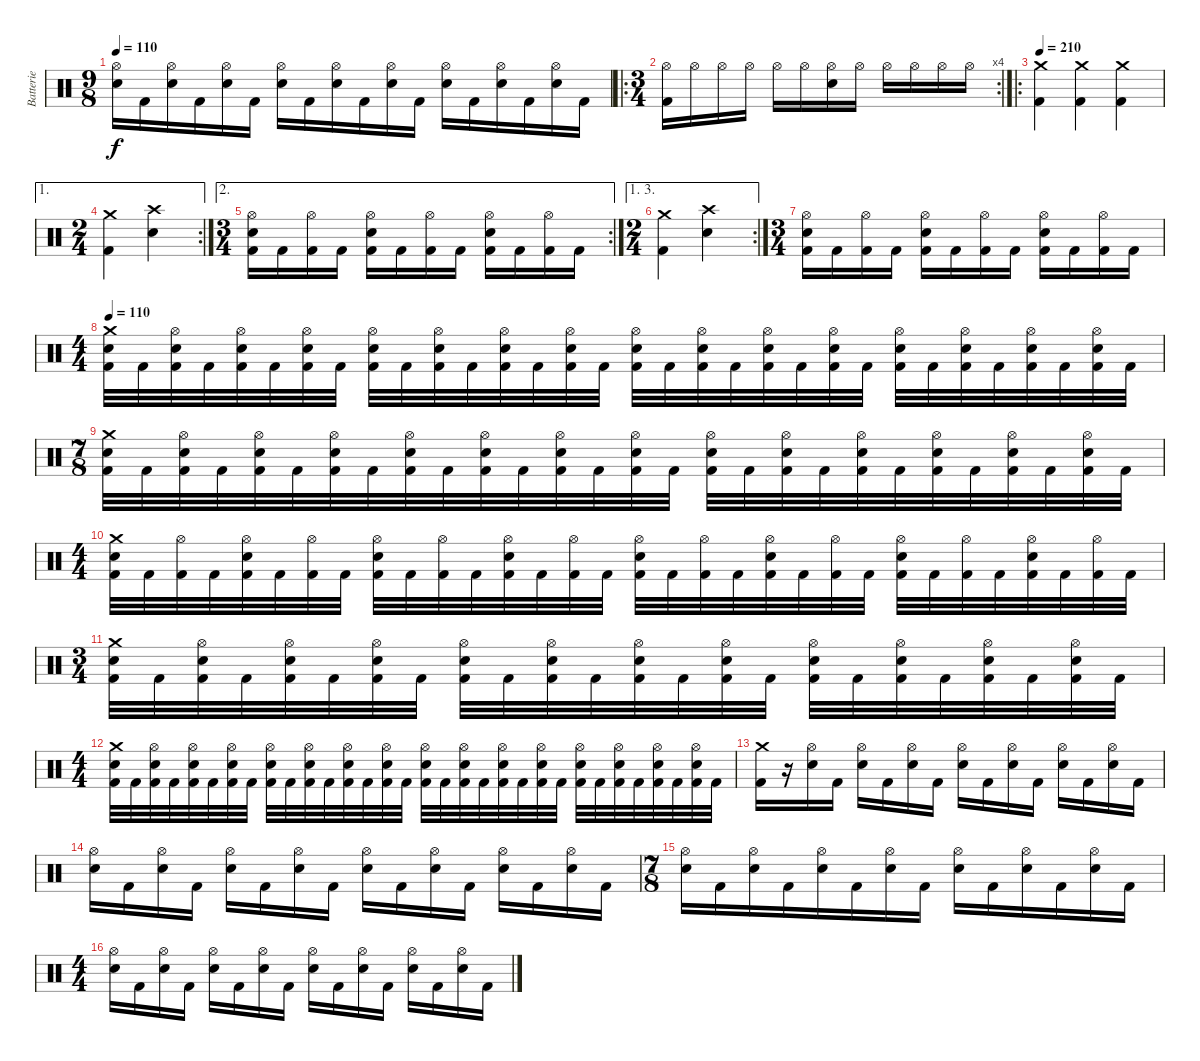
\track ("Batterie" "Batterie") {instrument percussion}
\staff {score}
\articulation defaults
\ts (9 8)
\tempo 110
\clef neutral
\ks c
("Hi-Hat (open)" "Electric Snare (hit)").16{dy f} "Kick (hit) 2".16 ("Hi-Hat (open)" "Electric Snare (hit)").16 "Kick (hit) 2".16 ("Hi-Hat (open)" "Electric Snare (hit)").16 "Kick (hit) 2".16 ("Hi-Hat (open)" "Electric Snare (hit)").16 "Kick (hit) 2".16 ("Hi-Hat (open)" "Electric Snare (hit)").16 "Kick (hit) 2".16 ("Hi-Hat (open)" "Electric Snare (hit)").16 "Kick (hit) 2".16 ("Hi-Hat (open)" "Electric Snare (hit)").16 "Kick (hit) 2".16 ("Hi-Hat (open)" "Electric Snare (hit)").16 "Kick (hit) 2".16 ("Hi-Hat (open)" "Electric Snare (hit)").16 "Kick (hit) 2".16 |
\ro
\rc 4
\ts (3 4)
("Hi-Hat (open)" "Kick (hit) 2").16 "Hi-Hat (open)".16 "Hi-Hat (open)".16 "Hi-Hat (open)".16 "Hi-Hat (open)".16 "Hi-Hat (open)".16 ("Hi-Hat (open)" "Electric Snare (hit)").16 "Hi-Hat (open)".16 "Hi-Hat (open)".16 "Hi-Hat (open)".16 "Hi-Hat (open)".16 "Hi-Hat (open)".16 |
\ro
\tempo 210
("Crash medium (hit)" "Kick (hit) 2").4 ("Crash medium (hit)" "Kick (hit) 2").4 ("Crash medium (hit)" "Kick (hit) 2").4 |
\ae 1
\rc 2
\ts (2 4)
("Crash medium (hit)" "Kick (hit) 2").4 ("Crash high (hit)" "Electric Snare (hit)").4 |
\ae 2
\rc 2
\ts (3 4)
("Hi-Hat (open)" "Electric Snare (hit)" "Kick (hit) 2").16 "Kick (hit) 2".16 ("Hi-Hat (open)" "Kick (hit) 2").16 "Kick (hit) 2".16 ("Hi-Hat (open)" "Electric Snare (hit)" "Kick (hit) 2").16 "Kick (hit) 2".16 ("Hi-Hat (open)" "Kick (hit) 2").16 "Kick (hit) 2".16 ("Hi-Hat (open)" "Electric Snare (hit)" "Kick (hit) 2").16 "Kick (hit) 2".16 ("Hi-Hat (open)" "Kick (hit) 2").16 "Kick (hit) 2".16 |
\ae (1 3)
\rc 2
\ts (2 4)
("Crash medium (hit)" "Kick (hit) 2").4 ("Crash high (hit)" "Electric Snare (hit)").4 |
\ts (3 4)
("Hi-Hat (open)" "Electric Snare (hit)" "Kick (hit) 2").16 "Kick (hit) 2".16 ("Hi-Hat (open)" "Kick (hit) 2").16 "Kick (hit) 2".16 ("Hi-Hat (open)" "Electric Snare (hit)" "Kick (hit) 2").16 "Kick (hit) 2".16 ("Hi-Hat (open)" "Kick (hit) 2").16 "Kick (hit) 2".16 ("Hi-Hat (open)" "Electric Snare (hit)" "Kick (hit) 2").16 "Kick (hit) 2".16 ("Hi-Hat (open)" "Kick (hit) 2").16 "Kick (hit) 2".16 |
\ts (4 4)
\tempo 110
("Crash medium (hit)" "Electric Snare (hit)" "Kick (hit) 2").32 "Kick (hit) 2".32 ("Hi-Hat (open)" "Electric Snare (hit)" "Kick (hit) 2").32 "Kick (hit) 2".32 ("Hi-Hat (open)" "Electric Snare (hit)" "Kick (hit) 2").32 "Kick (hit) 2".32 ("Hi-Hat (open)" "Electric Snare (hit)" "Kick (hit) 2").32 "Kick (hit) 2".32 ("Hi-Hat (open)" "Electric Snare (hit)" "Kick (hit) 2").32 "Kick (hit) 2".32 ("Hi-Hat (open)" "Electric Snare (hit)" "Kick (hit) 2").32 "Kick (hit) 2".32 ("Hi-Hat (open)" "Electric Snare (hit)" "Kick (hit) 2").32 "Kick (hit) 2".32 ("Hi-Hat (open)" "Electric Snare (hit)" "Kick (hit) 2").32 "Kick (hit) 2".32 ("Hi-Hat (open)" "Electric Snare (hit)" "Kick (hit) 2").32 "Kick (hit) 2".32 ("Hi-Hat (open)" "Electric Snare (hit)" "Kick (hit) 2").32 "Kick (hit) 2".32 ("Hi-Hat (open)" "Electric Snare (hit)" "Kick (hit) 2").32 "Kick (hit) 2".32 ("Hi-Hat (open)" "Electric Snare (hit)" "Kick (hit) 2").32 "Kick (hit) 2".32 ("Hi-Hat (open)" "Electric Snare (hit)" "Kick (hit) 2").32 "Kick (hit) 2".32 ("Hi-Hat (open)" "Electric Snare (hit)" "Kick (hit) 2").32 "Kick (hit) 2".32 ("Hi-Hat (open)" "Electric Snare (hit)" "Kick (hit) 2").32 "Kick (hit) 2".32 ("Hi-Hat (open)" "Electric Snare (hit)" "Kick (hit) 2").32 "Kick (hit) 2".32 |
\ts (7 8)
("Crash medium (hit)" "Electric Snare (hit)" "Kick (hit) 2").32 "Kick (hit) 2".32 ("Hi-Hat (open)" "Electric Snare (hit)" "Kick (hit) 2").32 "Kick (hit) 2".32 ("Hi-Hat (open)" "Electric Snare (hit)" "Kick (hit) 2").32 "Kick (hit) 2".32 ("Hi-Hat (open)" "Electric Snare (hit)" "Kick (hit) 2").32 "Kick (hit) 2".32 ("Hi-Hat (open)" "Electric Snare (hit)" "Kick (hit) 2").32 "Kick (hit) 2".32 ("Hi-Hat (open)" "Electric Snare (hit)" "Kick (hit) 2").32 "Kick (hit) 2".32 ("Hi-Hat (open)" "Electric Snare (hit)" "Kick (hit) 2").32 "Kick (hit) 2".32 ("Hi-Hat (open)" "Electric Snare (hit)" "Kick (hit) 2").32 "Kick (hit) 2".32 ("Hi-Hat (open)" "Electric Snare (hit)" "Kick (hit) 2").32 "Kick (hit) 2".32 ("Hi-Hat (open)" "Electric Snare (hit)" "Kick (hit) 2").32 "Kick (hit) 2".32 ("Hi-Hat (open)" "Electric Snare (hit)" "Kick (hit) 2").32 "Kick (hit) 2".32 ("Hi-Hat (open)" "Electric Snare (hit)" "Kick (hit) 2").32 "Kick (hit) 2".32 ("Hi-Hat (open)" "Electric Snare (hit)" "Kick (hit) 2").32 "Kick (hit) 2".32 ("Hi-Hat (open)" "Electric Snare (hit)" "Kick (hit) 2").32 "Kick (hit) 2".32 |
\ts (4 4)
("Crash medium (hit)" "Electric Snare (hit)" "Kick (hit) 2").32 "Kick (hit) 2".32 ("Hi-Hat (open)" "Kick (hit) 2").32 "Kick (hit) 2".32 ("Hi-Hat (open)" "Electric Snare (hit)" "Kick (hit) 2").32 "Kick (hit) 2".32 ("Hi-Hat (open)" "Kick (hit) 2").32 "Kick (hit) 2".32 ("Hi-Hat (open)" "Electric Snare (hit)" "Kick (hit) 2").32 "Kick (hit) 2".32 ("Hi-Hat (open)" "Kick (hit) 2").32 "Kick (hit) 2".32 ("Hi-Hat (open)" "Electric Snare (hit)" "Kick (hit) 2").32 "Kick (hit) 2".32 ("Hi-Hat (open)" "Kick (hit) 2").32 "Kick (hit) 2".32 ("Hi-Hat (open)" "Electric Snare (hit)" "Kick (hit) 2").32 "Kick (hit) 2".32 ("Hi-Hat (open)" "Kick (hit) 2").32 "Kick (hit) 2".32 ("Hi-Hat (open)" "Electric Snare (hit)" "Kick (hit) 2").32 "Kick (hit) 2".32 ("Hi-Hat (open)" "Kick (hit) 2").32 "Kick (hit) 2".32 ("Hi-Hat (open)" "Electric Snare (hit)" "Kick (hit) 2").32 "Kick (hit) 2".32 ("Hi-Hat (open)" "Kick (hit) 2").32 "Kick (hit) 2".32 ("Hi-Hat (open)" "Electric Snare (hit)" "Kick (hit) 2").32 "Kick (hit) 2".32 ("Hi-Hat (open)" "Kick (hit) 2").32 "Kick (hit) 2".32 |
\ts (3 4)
("Crash medium (hit)" "Electric Snare (hit)" "Kick (hit) 2").32 "Kick (hit) 2".32 ("Hi-Hat (open)" "Electric Snare (hit)" "Kick (hit) 2").32 "Kick (hit) 2".32 ("Hi-Hat (open)" "Electric Snare (hit)" "Kick (hit) 2").32 "Kick (hit) 2".32 ("Hi-Hat (open)" "Electric Snare (hit)" "Kick (hit) 2").32 "Kick (hit) 2".32 ("Hi-Hat (open)" "Electric Snare (hit)" "Kick (hit) 2").32 "Kick (hit) 2".32 ("Hi-Hat (open)" "Electric Snare (hit)" "Kick (hit) 2").32 "Kick (hit) 2".32 ("Hi-Hat (open)" "Electric Snare (hit)" "Kick (hit) 2").32 "Kick (hit) 2".32 ("Hi-Hat (open)" "Electric Snare (hit)" "Kick (hit) 2").32 "Kick (hit) 2".32 ("Hi-Hat (open)" "Electric Snare (hit)" "Kick (hit) 2").32 "Kick (hit) 2".32 ("Hi-Hat (open)" "Electric Snare (hit)" "Kick (hit) 2").32 "Kick (hit) 2".32 ("Hi-Hat (open)" "Electric Snare (hit)" "Kick (hit) 2").32 "Kick (hit) 2".32 ("Hi-Hat (open)" "Electric Snare (hit)" "Kick (hit) 2").32 "Kick (hit) 2".32 |
\ts (4 4)
("Crash medium (hit)" "Electric Snare (hit)" "Kick (hit) 2").32 "Kick (hit) 2".32 ("Hi-Hat (open)" "Electric Snare (hit)" "Kick (hit) 2").32 "Kick (hit) 2".32 ("Hi-Hat (open)" "Electric Snare (hit)" "Kick (hit) 2").32 "Kick (hit) 2".32 ("Hi-Hat (open)" "Electric Snare (hit)" "Kick (hit) 2").32 "Kick (hit) 2".32 ("Hi-Hat (open)" "Electric Snare (hit)" "Kick (hit) 2").32 "Kick (hit) 2".32 ("Hi-Hat (open)" "Electric Snare (hit)" "Kick (hit) 2").32 "Kick (hit) 2".32 ("Hi-Hat (open)" "Electric Snare (hit)" "Kick (hit) 2").32 "Kick (hit) 2".32 ("Hi-Hat (open)" "Electric Snare (hit)" "Kick (hit) 2").32 "Kick (hit) 2".32 ("Hi-Hat (open)" "Electric Snare (hit)" "Kick (hit) 2").32 "Kick (hit) 2".32 ("Hi-Hat (open)" "Electric Snare (hit)" "Kick (hit) 2").32 "Kick (hit) 2".32 ("Hi-Hat (open)" "Electric Snare (hit)" "Kick (hit) 2").32 "Kick (hit) 2".32 ("Hi-Hat (open)" "Electric Snare (hit)" "Kick (hit) 2").32 "Kick (hit) 2".32 ("Hi-Hat (open)" "Electric Snare (hit)" "Kick (hit) 2").32 "Kick (hit) 2".32 ("Hi-Hat (open)" "Electric Snare (hit)" "Kick (hit) 2").32 "Kick (hit) 2".32 ("Hi-Hat (open)" "Electric Snare (hit)" "Kick (hit) 2").32 "Kick (hit) 2".32 ("Hi-Hat (open)" "Electric Snare (hit)" "Kick (hit) 2").32 "Kick (hit) 2".32 |
("Crash medium (hit)" "Kick (hit) 2").16 r.16 ("Hi-Hat (open)" "Electric Snare (hit)").16 "Kick (hit) 2".16 ("Hi-Hat (open)" "Electric Snare (hit)").16 "Kick (hit) 2".16 ("Hi-Hat (open)" "Electric Snare (hit)").16 "Kick (hit) 2".16 ("Hi-Hat (open)" "Electric Snare (hit)").16 "Kick (hit) 2".16 ("Hi-Hat (open)" "Electric Snare (hit)").16 "Kick (hit) 2".16 ("Hi-Hat (open)" "Electric Snare (hit)").16 "Kick (hit) 2".16 ("Hi-Hat (open)" "Electric Snare (hit)").16 "Kick (hit) 2".16 |
("Hi-Hat (open)" "Electric Snare (hit)").16 "Kick (hit) 2".16 ("Hi-Hat (open)" "Electric Snare (hit)").16 "Kick (hit) 2".16 ("Hi-Hat (open)" "Electric Snare (hit)").16 "Kick (hit) 2".16 ("Hi-Hat (open)" "Electric Snare (hit)").16 "Kick (hit) 2".16 ("Hi-Hat (open)" "Electric Snare (hit)").16 "Kick (hit) 2".16 ("Hi-Hat (open)" "Electric Snare (hit)").16 "Kick (hit) 2".16 ("Hi-Hat (open)" "Electric Snare (hit)").16 "Kick (hit) 2".16 ("Hi-Hat (open)" "Electric Snare (hit)").16 "Kick (hit) 2".16 |
\ts (7 8)
("Hi-Hat (open)" "Electric Snare (hit)").16 "Kick (hit) 2".16 ("Hi-Hat (open)" "Electric Snare (hit)").16 "Kick (hit) 2".16 ("Hi-Hat (open)" "Electric Snare (hit)").16 "Kick (hit) 2".16 ("Hi-Hat (open)" "Electric Snare (hit)").16 "Kick (hit) 2".16 ("Hi-Hat (open)" "Electric Snare (hit)").16 "Kick (hit) 2".16 ("Hi-Hat (open)" "Electric Snare (hit)").16 "Kick (hit) 2".16 ("Hi-Hat (open)" "Electric Snare (hit)").16 "Kick (hit) 2".16 |
\ts (4 4)
("Hi-Hat (open)" "Electric Snare (hit)").16 "Kick (hit) 2".16 ("Hi-Hat (open)" "Electric Snare (hit)").16 "Kick (hit) 2".16 ("Hi-Hat (open)" "Electric Snare (hit)").16 "Kick (hit) 2".16 ("Hi-Hat (open)" "Electric Snare (hit)").16 "Kick (hit) 2".16 ("Hi-Hat (open)" "Electric Snare (hit)").16 "Kick (hit) 2".16 ("Hi-Hat (open)" "Electric Snare (hit)").16 "Kick (hit) 2".16 ("Hi-Hat (open)" "Electric Snare (hit)").16 "Kick (hit) 2".16 ("Hi-Hat (open)" "Electric Snare (hit)").16 "Kick (hit) 2".16
